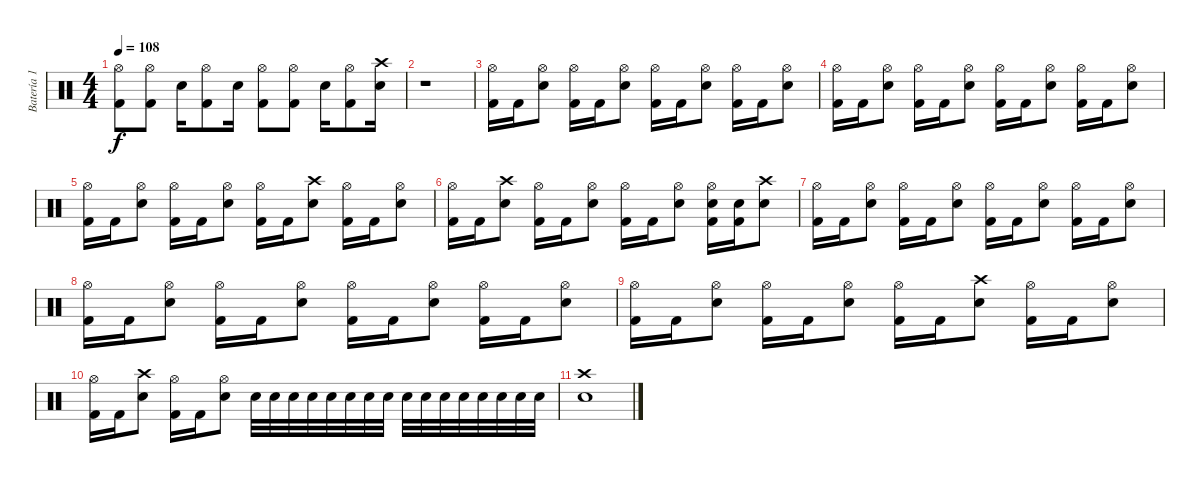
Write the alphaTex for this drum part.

\track ("Batería 1" "Batería 1") {instrument percussion}
\staff {score}
\articulation defaults
\ts (4 4)
\tempo 108
\clef neutral
\ks c
("Hi-Hat (open)" "Kick (hit) 2").8{dy f} ("Hi-Hat (open)" "Kick (hit) 2").8 "Snare (hit) 2".16 ("Hi-Hat (open)" "Kick (hit) 2").8 "Snare (hit) 2".16 ("Hi-Hat (open)" "Kick (hit) 2").8 ("Hi-Hat (open)" "Kick (hit) 2").8 "Snare (hit) 2".16 ("Hi-Hat (open)" "Kick (hit) 2").8 ("Crash high (hit)" "Snare (hit) 2").16 |
r.1 |
("Hi-Hat (open)" "Kick (hit) 2").16 "Kick (hit) 2".16 ("Hi-Hat (open)" "Snare (hit) 2").8 ("Hi-Hat (open)" "Kick (hit) 2").16 "Kick (hit) 2".16 ("Hi-Hat (open)" "Snare (hit) 2").8 ("Hi-Hat (open)" "Kick (hit) 2").16 "Kick (hit) 2".16 ("Hi-Hat (open)" "Snare (hit) 2").8 ("Hi-Hat (open)" "Kick (hit) 2").16 "Kick (hit) 2".16 ("Hi-Hat (open)" "Snare (hit) 2").8 |
("Hi-Hat (open)" "Kick (hit) 2").16 "Kick (hit) 2".16 ("Hi-Hat (open)" "Snare (hit) 2").8 ("Hi-Hat (open)" "Kick (hit) 2").16 "Kick (hit) 2".16 ("Hi-Hat (open)" "Snare (hit) 2").8 ("Hi-Hat (open)" "Kick (hit) 2").16 "Kick (hit) 2".16 ("Hi-Hat (open)" "Snare (hit) 2").8 ("Hi-Hat (open)" "Kick (hit) 2").16 "Kick (hit) 2".16 ("Hi-Hat (open)" "Snare (hit) 2").8 |
("Hi-Hat (open)" "Kick (hit) 2").16 "Kick (hit) 2".16 ("Hi-Hat (open)" "Snare (hit) 2").8 ("Hi-Hat (open)" "Kick (hit) 2").16 "Kick (hit) 2".16 ("Hi-Hat (open)" "Snare (hit) 2").8 ("Hi-Hat (open)" "Kick (hit) 2").16 "Kick (hit) 2".16 ("Crash high (hit)" "Snare (hit) 2").8 ("Hi-Hat (open)" "Kick (hit) 2").16 "Kick (hit) 2".16 ("Hi-Hat (open)" "Snare (hit) 2").8 |
("Hi-Hat (open)" "Kick (hit) 2").16 "Kick (hit) 2".16 ("Crash high (hit)" "Snare (hit) 2").8 ("Hi-Hat (open)" "Kick (hit) 2").16 "Kick (hit) 2".16 ("Hi-Hat (open)" "Snare (hit) 2").8 ("Hi-Hat (open)" "Kick (hit) 2").16 "Kick (hit) 2".16 ("Hi-Hat (open)" "Snare (hit) 2").8 ("Hi-Hat (open)" "Kick (hit) 2" "Snare (hit) 2").16 ("Kick (hit) 2" "Snare (hit) 2").16 ("Crash high (hit)" "Snare (hit) 2").8 |
("Hi-Hat (open)" "Kick (hit) 2").16 "Kick (hit) 2".16 ("Hi-Hat (open)" "Snare (hit) 2").8 ("Hi-Hat (open)" "Kick (hit) 2").16 "Kick (hit) 2".16 ("Hi-Hat (open)" "Snare (hit) 2").8 ("Hi-Hat (open)" "Kick (hit) 2").16 "Kick (hit) 2".16 ("Hi-Hat (open)" "Snare (hit) 2").8 ("Hi-Hat (open)" "Kick (hit) 2").16 "Kick (hit) 2".16 ("Hi-Hat (open)" "Snare (hit) 2").8 |
("Hi-Hat (open)" "Kick (hit) 2").16 "Kick (hit) 2".16 ("Hi-Hat (open)" "Snare (hit) 2").8 ("Hi-Hat (open)" "Kick (hit) 2").16 "Kick (hit) 2".16 ("Hi-Hat (open)" "Snare (hit) 2").8 ("Hi-Hat (open)" "Kick (hit) 2").16 "Kick (hit) 2".16 ("Hi-Hat (open)" "Snare (hit) 2").8 ("Hi-Hat (open)" "Kick (hit) 2").16 "Kick (hit) 2".16 ("Hi-Hat (open)" "Snare (hit) 2").8 |
("Hi-Hat (open)" "Kick (hit) 2").16 "Kick (hit) 2".16 ("Hi-Hat (open)" "Snare (hit) 2").8 ("Hi-Hat (open)" "Kick (hit) 2").16 "Kick (hit) 2".16 ("Hi-Hat (open)" "Snare (hit) 2").8 ("Hi-Hat (open)" "Kick (hit) 2").16 "Kick (hit) 2".16 ("Crash high (hit)" "Snare (hit) 2").8 ("Hi-Hat (open)" "Kick (hit) 2").16 "Kick (hit) 2".16 ("Hi-Hat (open)" "Snare (hit) 2").8 |
("Hi-Hat (open)" "Kick (hit) 2").16 "Kick (hit) 2".16 ("Crash high (hit)" "Snare (hit) 2").8 ("Hi-Hat (open)" "Kick (hit) 2").16 "Kick (hit) 2".16 ("Hi-Hat (open)" "Snare (hit) 2").8 "Electric Snare (hit)".32 "Electric Snare (hit)".32 "Electric Snare (hit)".32 "Electric Snare (hit)".32 "Electric Snare (hit)".32 "Electric Snare (hit)".32 "Electric Snare (hit)".32 "Electric Snare (hit)".32 "Snare (hit) 2".32 "Snare (hit) 2".32 "Snare (hit) 2".32 "Snare (hit) 2".32 "Snare (hit) 2".32 "Snare (hit) 2".32 "Snare (hit) 2".32 "Snare (hit) 2".32 |
("Crash high (hit)" "Snare (hit) 2").1
